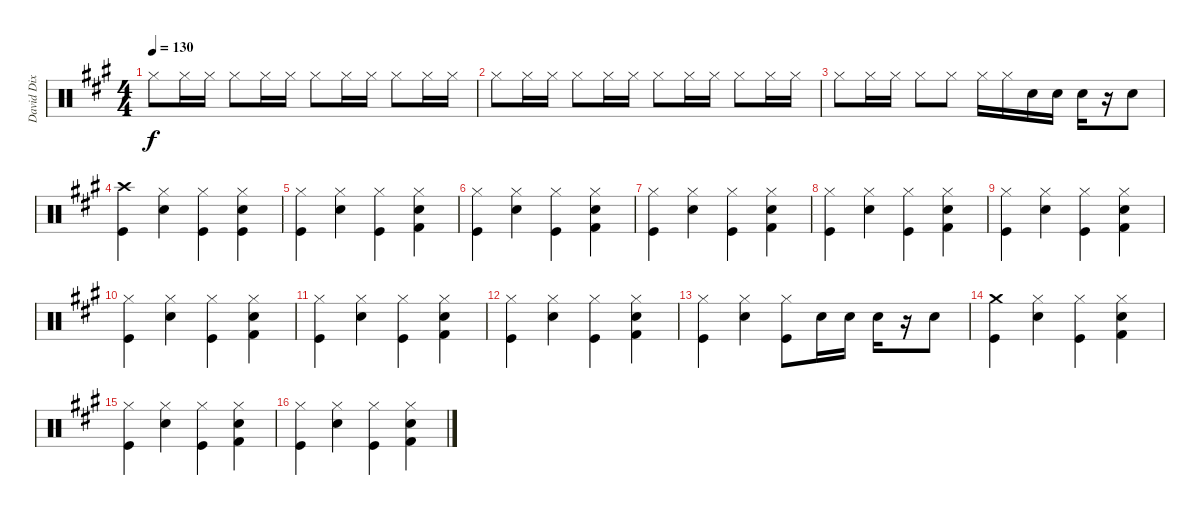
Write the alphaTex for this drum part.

\track ("David Dix Drums" "David Dix ") {instrument percussion}
\staff {score}
\articulation defaults
\ts (4 4)
\tempo 130
\clef neutral
\ks f#minor "Hi-Hat (closed)".8{dy f} "Hi-Hat (closed)".16 "Hi-Hat (closed)".16 "Hi-Hat (closed)".8 "Hi-Hat (closed)".16 "Hi-Hat (closed)".16 "Hi-Hat (closed)".8 "Hi-Hat (closed)".16 "Hi-Hat (closed)".16 "Hi-Hat (closed)".8 "Hi-Hat (closed)".16 "Hi-Hat (closed)".16
|
"Hi-Hat (closed)".8 "Hi-Hat (closed)".16 "Hi-Hat (closed)".16 "Hi-Hat (closed)".8 "Hi-Hat (closed)".16 "Hi-Hat (closed)".16 "Hi-Hat (closed)".8 "Hi-Hat (closed)".16 "Hi-Hat (closed)".16 "Hi-Hat (closed)".8 "Hi-Hat (closed)".16 "Hi-Hat (closed)".16 |
"Hi-Hat (closed)".8 "Hi-Hat (closed)".16 "Hi-Hat (closed)".16 "Hi-Hat (closed)".8 "Hi-Hat (closed)".8 "Hi-Hat (closed)".16 "Hi-Hat (closed)".16 "Snare (hit) 2".16{volume 14} "Snare (hit) 2".16 "Snare (hit) 2".16 r.16 "Snare (hit) 2".8 |
("Crash high (hit)" "Kick (hit)").4 ("Hi-Hat (closed)" "Snare (hit) 2").4 ("Hi-Hat (closed)" "Kick (hit)").4 ("Hi-Hat (closed)" "Snare (hit) 2" "Kick (hit)").4 |
("Hi-Hat (closed)" "Kick (hit)").4 ("Hi-Hat (closed)" "Snare (hit) 2").4 ("Hi-Hat (closed)" "Kick (hit)").4 ("Hi-Hat (closed)" "Snare (hit) 2" "Kick (hit) 2").4 |
("Hi-Hat (closed)" "Kick (hit)").4 ("Hi-Hat (closed)" "Snare (hit) 2").4 ("Hi-Hat (closed)" "Kick (hit)").4 ("Hi-Hat (closed)" "Snare (hit) 2" "Kick (hit) 2").4 |
("Hi-Hat (closed)" "Kick (hit)").4 ("Hi-Hat (closed)" "Snare (hit) 2").4 ("Hi-Hat (closed)" "Kick (hit)").4 ("Hi-Hat (closed)" "Snare (hit) 2" "Kick (hit) 2").4 |
("Hi-Hat (closed)" "Kick (hit)").4 ("Hi-Hat (closed)" "Snare (hit) 2").4 ("Hi-Hat (closed)" "Kick (hit)").4 ("Hi-Hat (closed)" "Snare (hit) 2" "Kick (hit) 2").4 |
("Hi-Hat (closed)" "Kick (hit)").4 ("Hi-Hat (closed)" "Snare (hit) 2").4 ("Hi-Hat (closed)" "Kick (hit)").4 ("Hi-Hat (closed)" "Snare (hit) 2" "Kick (hit) 2").4 |
("Hi-Hat (closed)" "Kick (hit)").4 ("Hi-Hat (closed)" "Snare (hit) 2").4 ("Hi-Hat (closed)" "Kick (hit)").4 ("Hi-Hat (closed)" "Snare (hit) 2" "Kick (hit) 2").4 |
("Hi-Hat (closed)" "Kick (hit)").4 ("Hi-Hat (closed)" "Snare (hit) 2").4 ("Hi-Hat (closed)" "Kick (hit)").4 ("Hi-Hat (closed)" "Snare (hit) 2" "Kick (hit) 2").4 |
("Hi-Hat (closed)" "Kick (hit)").4 ("Hi-Hat (closed)" "Snare (hit) 2").4 ("Hi-Hat (closed)" "Kick (hit)").4 ("Hi-Hat (closed)" "Snare (hit) 2" "Kick (hit) 2").4 |
("Hi-Hat (closed)" "Kick (hit)").4 ("Hi-Hat (closed)" "Snare (hit) 2").4 ("Hi-Hat (closed)" "Kick (hit)").8 "Snare (hit) 2".16 "Snare (hit) 2".16 "Snare (hit) 2".16 r.16 "Snare (hit) 2".8 |
("Crash medium (hit)" "Kick (hit)").4 ("Hi-Hat (closed)" "Snare (hit) 2").4 ("Hi-Hat (closed)" "Kick (hit)").4 ("Hi-Hat (closed)" "Snare (hit) 2" "Kick (hit) 2").4 |
("Hi-Hat (closed)" "Kick (hit)").4 ("Hi-Hat (closed)" "Snare (hit) 2").4 ("Hi-Hat (closed)" "Kick (hit)").4 ("Hi-Hat (closed)" "Snare (hit) 2" "Kick (hit) 2").4 |
("Hi-Hat (closed)" "Kick (hit)").4 ("Hi-Hat (closed)" "Snare (hit) 2").4 ("Hi-Hat (closed)" "Kick (hit)").4 ("Hi-Hat (closed)" "Snare (hit) 2" "Kick (hit) 2").4
